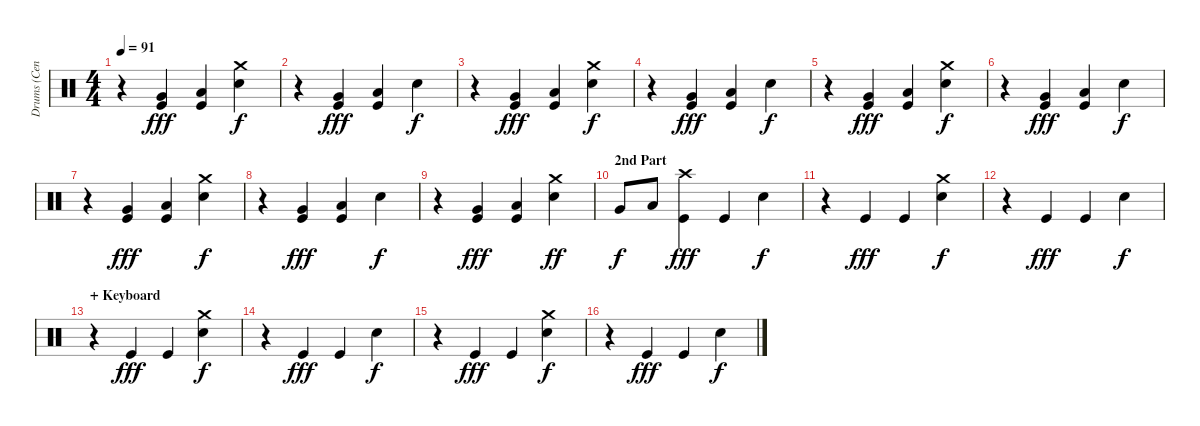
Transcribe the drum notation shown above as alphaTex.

\track ("Drums (Cenk)" "Drums (Cen") {instrument percussion}
\staff {score}
\articulation defaults
\ts (4 4)
\tempo 91
\clef neutral
\ks c
r.4{dy f} ("Very Low Tom (hit)" "Kick (hit)").4{dy fff} ("Low Floor Tom (hit)" "Kick (hit)").4 ("Crash medium (hit)" "Snare (hit) 2").4{dy f} |
r.4 ("Very Low Tom (hit)" "Kick (hit)").4{dy fff} ("Low Floor Tom (hit)" "Kick (hit)").4 "Snare (hit) 2".4{dy f} |
r.4 ("Very Low Tom (hit)" "Kick (hit)").4{dy fff} ("Low Floor Tom (hit)" "Kick (hit)").4 ("Crash medium (hit)" "Snare (hit) 2").4{dy f} |
r.4 ("Very Low Tom (hit)" "Kick (hit)").4{dy fff} ("Low Floor Tom (hit)" "Kick (hit)").4 "Snare (hit) 2".4{dy f} |
r.4 ("Very Low Tom (hit)" "Kick (hit)").4{dy fff} ("Low Floor Tom (hit)" "Kick (hit)").4 ("Crash medium (hit)" "Snare (hit) 2").4{dy f} |
r.4 ("Very Low Tom (hit)" "Kick (hit)").4{dy fff} ("Low Floor Tom (hit)" "Kick (hit)").4 "Snare (hit) 2".4{dy f} |
r.4 ("Very Low Tom (hit)" "Kick (hit)").4{dy fff} ("Low Floor Tom (hit)" "Kick (hit)").4 ("Crash medium (hit)" "Snare (hit) 2").4{dy f} |
r.4 ("Very Low Tom (hit)" "Kick (hit)").4{dy fff} ("Low Floor Tom (hit)" "Kick (hit)").4 "Snare (hit) 2".4{dy f} |
r.4 ("Very Low Tom (hit)" "Kick (hit)").4{dy fff} ("Low Floor Tom (hit)" "Kick (hit)").4 ("Crash medium (hit)" "Snare (hit) 2").4{dy ff} |
\section ("" "2nd Part")
"Very Low Tom (hit)".8{dy f} "Low Floor Tom (hit)".8 ("Crash high (hit)" "Kick (hit)").4{dy fff} "Kick (hit)".4 "Snare (hit) 2".4{dy f} |
r.4 "Kick (hit)".4{dy fff} "Kick (hit)".4 ("Crash medium (hit)" "Snare (hit) 2").4{dy f} |
r.4 "Kick (hit)".4{dy fff} "Kick (hit)".4 "Snare (hit) 2".4{dy f} |
\section ("" "+ Keyboard")
r.4 "Kick (hit)".4{dy fff} "Kick (hit)".4 ("Crash medium (hit)" "Snare (hit) 2").4{dy f} |
r.4 "Kick (hit)".4{dy fff} "Kick (hit)".4 "Snare (hit) 2".4{dy f} |
r.4 "Kick (hit)".4{dy fff} "Kick (hit)".4 ("Crash medium (hit)" "Snare (hit) 2").4{dy f} |
r.4 "Kick (hit)".4{dy fff} "Kick (hit)".4 "Snare (hit) 2".4{dy f}
